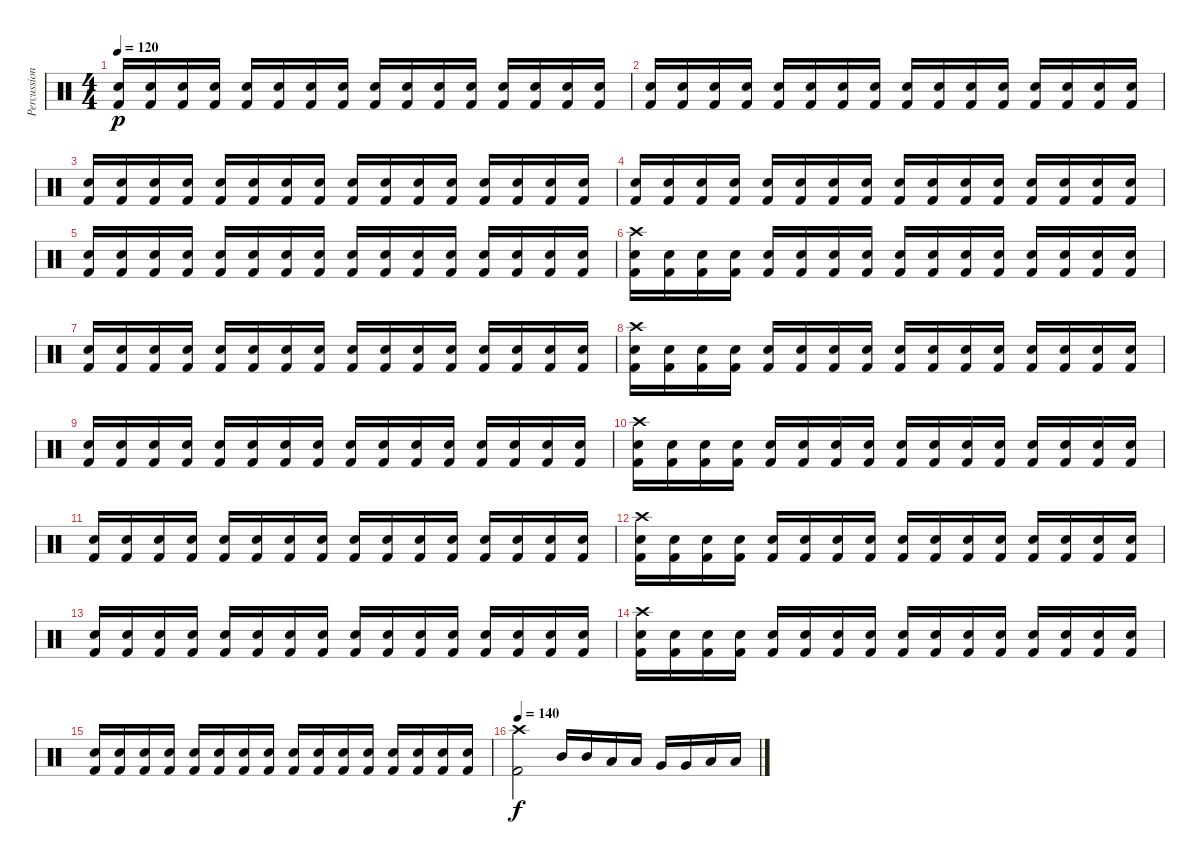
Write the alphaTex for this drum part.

\track ("Percussion" "Percussion") {instrument percussion}
\staff {score}
\articulation defaults
\ts (4 4)
\tempo 120
\clef neutral
\ks c
("Snare (hit) 2" "Kick (hit) 2").16{dy p} ("Snare (hit) 2" "Kick (hit) 2").16 ("Snare (hit) 2" "Kick (hit) 2").16 ("Snare (hit) 2" "Kick (hit) 2").16 ("Snare (hit) 2" "Kick (hit) 2").16 ("Snare (hit) 2" "Kick (hit) 2").16 ("Snare (hit) 2" "Kick (hit) 2").16 ("Snare (hit) 2" "Kick (hit) 2").16 ("Snare (hit) 2" "Kick (hit) 2").16 ("Snare (hit) 2" "Kick (hit) 2").16 ("Snare (hit) 2" "Kick (hit) 2").16 ("Snare (hit) 2" "Kick (hit) 2").16 ("Snare (hit) 2" "Kick (hit) 2").16 ("Snare (hit) 2" "Kick (hit) 2").16 ("Snare (hit) 2" "Kick (hit) 2").16 ("Snare (hit) 2" "Kick (hit) 2").16 |
("Snare (hit) 2" "Kick (hit) 2").16 ("Snare (hit) 2" "Kick (hit) 2").16 ("Snare (hit) 2" "Kick (hit) 2").16 ("Snare (hit) 2" "Kick (hit) 2").16 ("Snare (hit) 2" "Kick (hit) 2").16 ("Snare (hit) 2" "Kick (hit) 2").16 ("Snare (hit) 2" "Kick (hit) 2").16 ("Snare (hit) 2" "Kick (hit) 2").16 ("Snare (hit) 2" "Kick (hit) 2").16 ("Snare (hit) 2" "Kick (hit) 2").16 ("Snare (hit) 2" "Kick (hit) 2").16 ("Snare (hit) 2" "Kick (hit) 2").16 ("Snare (hit) 2" "Kick (hit) 2").16 ("Snare (hit) 2" "Kick (hit) 2").16 ("Snare (hit) 2" "Kick (hit) 2").16 ("Snare (hit) 2" "Kick (hit) 2").16 |
("Snare (hit) 2" "Kick (hit) 2").16 ("Snare (hit) 2" "Kick (hit) 2").16 ("Snare (hit) 2" "Kick (hit) 2").16 ("Snare (hit) 2" "Kick (hit) 2").16 ("Snare (hit) 2" "Kick (hit) 2").16 ("Snare (hit) 2" "Kick (hit) 2").16 ("Snare (hit) 2" "Kick (hit) 2").16 ("Snare (hit) 2" "Kick (hit) 2").16 ("Snare (hit) 2" "Kick (hit) 2").16 ("Snare (hit) 2" "Kick (hit) 2").16 ("Snare (hit) 2" "Kick (hit) 2").16 ("Snare (hit) 2" "Kick (hit) 2").16 ("Snare (hit) 2" "Kick (hit) 2").16 ("Snare (hit) 2" "Kick (hit) 2").16 ("Snare (hit) 2" "Kick (hit) 2").16 ("Snare (hit) 2" "Kick (hit) 2").16 |
("Snare (hit) 2" "Kick (hit) 2").16 ("Snare (hit) 2" "Kick (hit) 2").16 ("Snare (hit) 2" "Kick (hit) 2").16 ("Snare (hit) 2" "Kick (hit) 2").16 ("Snare (hit) 2" "Kick (hit) 2").16 ("Snare (hit) 2" "Kick (hit) 2").16 ("Snare (hit) 2" "Kick (hit) 2").16 ("Snare (hit) 2" "Kick (hit) 2").16 ("Snare (hit) 2" "Kick (hit) 2").16 ("Snare (hit) 2" "Kick (hit) 2").16 ("Snare (hit) 2" "Kick (hit) 2").16 ("Snare (hit) 2" "Kick (hit) 2").16 ("Snare (hit) 2" "Kick (hit) 2").16 ("Snare (hit) 2" "Kick (hit) 2").16 ("Snare (hit) 2" "Kick (hit) 2").16 ("Snare (hit) 2" "Kick (hit) 2").16 |
("Snare (hit) 2" "Kick (hit) 2").16 ("Snare (hit) 2" "Kick (hit) 2").16 ("Snare (hit) 2" "Kick (hit) 2").16 ("Snare (hit) 2" "Kick (hit) 2").16 ("Snare (hit) 2" "Kick (hit) 2").16 ("Snare (hit) 2" "Kick (hit) 2").16 ("Snare (hit) 2" "Kick (hit) 2").16 ("Snare (hit) 2" "Kick (hit) 2").16 ("Snare (hit) 2" "Kick (hit) 2").16 ("Snare (hit) 2" "Kick (hit) 2").16 ("Snare (hit) 2" "Kick (hit) 2").16 ("Snare (hit) 2" "Kick (hit) 2").16 ("Snare (hit) 2" "Kick (hit) 2").16 ("Snare (hit) 2" "Kick (hit) 2").16 ("Snare (hit) 2" "Kick (hit) 2").16 ("Snare (hit) 2" "Kick (hit) 2").16 |
("Crash high (hit)" "Snare (hit) 2" "Kick (hit) 2").16 ("Snare (hit) 2" "Kick (hit) 2").16 ("Snare (hit) 2" "Kick (hit) 2").16 ("Snare (hit) 2" "Kick (hit) 2").16 ("Snare (hit) 2" "Kick (hit) 2").16 ("Snare (hit) 2" "Kick (hit) 2").16 ("Snare (hit) 2" "Kick (hit) 2").16 ("Snare (hit) 2" "Kick (hit) 2").16 ("Snare (hit) 2" "Kick (hit) 2").16 ("Snare (hit) 2" "Kick (hit) 2").16 ("Snare (hit) 2" "Kick (hit) 2").16 ("Snare (hit) 2" "Kick (hit) 2").16 ("Snare (hit) 2" "Kick (hit) 2").16 ("Snare (hit) 2" "Kick (hit) 2").16 ("Snare (hit) 2" "Kick (hit) 2").16 ("Snare (hit) 2" "Kick (hit) 2").16 |
("Snare (hit) 2" "Kick (hit) 2").16 ("Snare (hit) 2" "Kick (hit) 2").16 ("Snare (hit) 2" "Kick (hit) 2").16 ("Snare (hit) 2" "Kick (hit) 2").16 ("Snare (hit) 2" "Kick (hit) 2").16 ("Snare (hit) 2" "Kick (hit) 2").16 ("Snare (hit) 2" "Kick (hit) 2").16 ("Snare (hit) 2" "Kick (hit) 2").16 ("Snare (hit) 2" "Kick (hit) 2").16 ("Snare (hit) 2" "Kick (hit) 2").16 ("Snare (hit) 2" "Kick (hit) 2").16 ("Snare (hit) 2" "Kick (hit) 2").16 ("Snare (hit) 2" "Kick (hit) 2").16 ("Snare (hit) 2" "Kick (hit) 2").16 ("Snare (hit) 2" "Kick (hit) 2").16 ("Snare (hit) 2" "Kick (hit) 2").16 |
("Crash high (hit)" "Snare (hit) 2" "Kick (hit) 2").16 ("Snare (hit) 2" "Kick (hit) 2").16 ("Snare (hit) 2" "Kick (hit) 2").16 ("Snare (hit) 2" "Kick (hit) 2").16 ("Snare (hit) 2" "Kick (hit) 2").16 ("Snare (hit) 2" "Kick (hit) 2").16 ("Snare (hit) 2" "Kick (hit) 2").16 ("Snare (hit) 2" "Kick (hit) 2").16 ("Snare (hit) 2" "Kick (hit) 2").16 ("Snare (hit) 2" "Kick (hit) 2").16 ("Snare (hit) 2" "Kick (hit) 2").16 ("Snare (hit) 2" "Kick (hit) 2").16 ("Snare (hit) 2" "Kick (hit) 2").16 ("Snare (hit) 2" "Kick (hit) 2").16 ("Snare (hit) 2" "Kick (hit) 2").16 ("Snare (hit) 2" "Kick (hit) 2").16 |
("Snare (hit) 2" "Kick (hit) 2").16 ("Snare (hit) 2" "Kick (hit) 2").16 ("Snare (hit) 2" "Kick (hit) 2").16 ("Snare (hit) 2" "Kick (hit) 2").16 ("Snare (hit) 2" "Kick (hit) 2").16 ("Snare (hit) 2" "Kick (hit) 2").16 ("Snare (hit) 2" "Kick (hit) 2").16 ("Snare (hit) 2" "Kick (hit) 2").16 ("Snare (hit) 2" "Kick (hit) 2").16 ("Snare (hit) 2" "Kick (hit) 2").16 ("Snare (hit) 2" "Kick (hit) 2").16 ("Snare (hit) 2" "Kick (hit) 2").16 ("Snare (hit) 2" "Kick (hit) 2").16 ("Snare (hit) 2" "Kick (hit) 2").16 ("Snare (hit) 2" "Kick (hit) 2").16 ("Snare (hit) 2" "Kick (hit) 2").16 |
("Crash high (hit)" "Snare (hit) 2" "Kick (hit) 2").16 ("Snare (hit) 2" "Kick (hit) 2").16 ("Snare (hit) 2" "Kick (hit) 2").16 ("Snare (hit) 2" "Kick (hit) 2").16 ("Snare (hit) 2" "Kick (hit) 2").16 ("Snare (hit) 2" "Kick (hit) 2").16 ("Snare (hit) 2" "Kick (hit) 2").16 ("Snare (hit) 2" "Kick (hit) 2").16 ("Snare (hit) 2" "Kick (hit) 2").16 ("Snare (hit) 2" "Kick (hit) 2").16 ("Snare (hit) 2" "Kick (hit) 2").16 ("Snare (hit) 2" "Kick (hit) 2").16 ("Snare (hit) 2" "Kick (hit) 2").16 ("Snare (hit) 2" "Kick (hit) 2").16 ("Snare (hit) 2" "Kick (hit) 2").16 ("Snare (hit) 2" "Kick (hit) 2").16 |
("Snare (hit) 2" "Kick (hit) 2").16 ("Snare (hit) 2" "Kick (hit) 2").16 ("Snare (hit) 2" "Kick (hit) 2").16 ("Snare (hit) 2" "Kick (hit) 2").16 ("Snare (hit) 2" "Kick (hit) 2").16 ("Snare (hit) 2" "Kick (hit) 2").16 ("Snare (hit) 2" "Kick (hit) 2").16 ("Snare (hit) 2" "Kick (hit) 2").16 ("Snare (hit) 2" "Kick (hit) 2").16 ("Snare (hit) 2" "Kick (hit) 2").16 ("Snare (hit) 2" "Kick (hit) 2").16 ("Snare (hit) 2" "Kick (hit) 2").16 ("Snare (hit) 2" "Kick (hit) 2").16 ("Snare (hit) 2" "Kick (hit) 2").16 ("Snare (hit) 2" "Kick (hit) 2").16 ("Snare (hit) 2" "Kick (hit) 2").16 |
("Crash high (hit)" "Snare (hit) 2" "Kick (hit) 2").16 ("Snare (hit) 2" "Kick (hit) 2").16 ("Snare (hit) 2" "Kick (hit) 2").16 ("Snare (hit) 2" "Kick (hit) 2").16 ("Snare (hit) 2" "Kick (hit) 2").16 ("Snare (hit) 2" "Kick (hit) 2").16 ("Snare (hit) 2" "Kick (hit) 2").16 ("Snare (hit) 2" "Kick (hit) 2").16 ("Snare (hit) 2" "Kick (hit) 2").16 ("Snare (hit) 2" "Kick (hit) 2").16 ("Snare (hit) 2" "Kick (hit) 2").16 ("Snare (hit) 2" "Kick (hit) 2").16 ("Snare (hit) 2" "Kick (hit) 2").16 ("Snare (hit) 2" "Kick (hit) 2").16 ("Snare (hit) 2" "Kick (hit) 2").16 ("Snare (hit) 2" "Kick (hit) 2").16 |
("Snare (hit) 2" "Kick (hit) 2").16 ("Snare (hit) 2" "Kick (hit) 2").16 ("Snare (hit) 2" "Kick (hit) 2").16 ("Snare (hit) 2" "Kick (hit) 2").16 ("Snare (hit) 2" "Kick (hit) 2").16 ("Snare (hit) 2" "Kick (hit) 2").16 ("Snare (hit) 2" "Kick (hit) 2").16 ("Snare (hit) 2" "Kick (hit) 2").16 ("Snare (hit) 2" "Kick (hit) 2").16 ("Snare (hit) 2" "Kick (hit) 2").16 ("Snare (hit) 2" "Kick (hit) 2").16 ("Snare (hit) 2" "Kick (hit) 2").16 ("Snare (hit) 2" "Kick (hit) 2").16 ("Snare (hit) 2" "Kick (hit) 2").16 ("Snare (hit) 2" "Kick (hit) 2").16 ("Snare (hit) 2" "Kick (hit) 2").16 |
("Crash high (hit)" "Snare (hit) 2" "Kick (hit) 2").16 ("Snare (hit) 2" "Kick (hit) 2").16 ("Snare (hit) 2" "Kick (hit) 2").16 ("Snare (hit) 2" "Kick (hit) 2").16 ("Snare (hit) 2" "Kick (hit) 2").16 ("Snare (hit) 2" "Kick (hit) 2").16 ("Snare (hit) 2" "Kick (hit) 2").16 ("Snare (hit) 2" "Kick (hit) 2").16 ("Snare (hit) 2" "Kick (hit) 2").16 ("Snare (hit) 2" "Kick (hit) 2").16 ("Snare (hit) 2" "Kick (hit) 2").16 ("Snare (hit) 2" "Kick (hit) 2").16 ("Snare (hit) 2" "Kick (hit) 2").16 ("Snare (hit) 2" "Kick (hit) 2").16 ("Snare (hit) 2" "Kick (hit) 2").16 ("Snare (hit) 2" "Kick (hit) 2").16 |
("Snare (hit) 2" "Kick (hit) 2").16 ("Snare (hit) 2" "Kick (hit) 2").16 ("Snare (hit) 2" "Kick (hit) 2").16 ("Snare (hit) 2" "Kick (hit) 2").16 ("Snare (hit) 2" "Kick (hit) 2").16 ("Snare (hit) 2" "Kick (hit) 2").16 ("Snare (hit) 2" "Kick (hit) 2").16 ("Snare (hit) 2" "Kick (hit) 2").16 ("Snare (hit) 2" "Kick (hit) 2").16 ("Snare (hit) 2" "Kick (hit) 2").16 ("Snare (hit) 2" "Kick (hit) 2").16 ("Snare (hit) 2" "Kick (hit) 2").16 ("Snare (hit) 2" "Kick (hit) 2").16 ("Snare (hit) 2" "Kick (hit) 2").16 ("Snare (hit) 2" "Kick (hit) 2").16 ("Snare (hit) 2" "Kick (hit) 2").16 |
\tempo 140
("Crash high (hit)" "Kick (hit) 2").2{dy f} "Mid Tom (hit)".16 "Mid Tom (hit)".16 "Low Tom (hit)".16 "Low Tom (hit)".16 "Very Low Tom (hit)".16 "Very Low Tom (hit)".16 "Low Floor Tom (hit)".16 "Low Floor Tom (hit)".16
